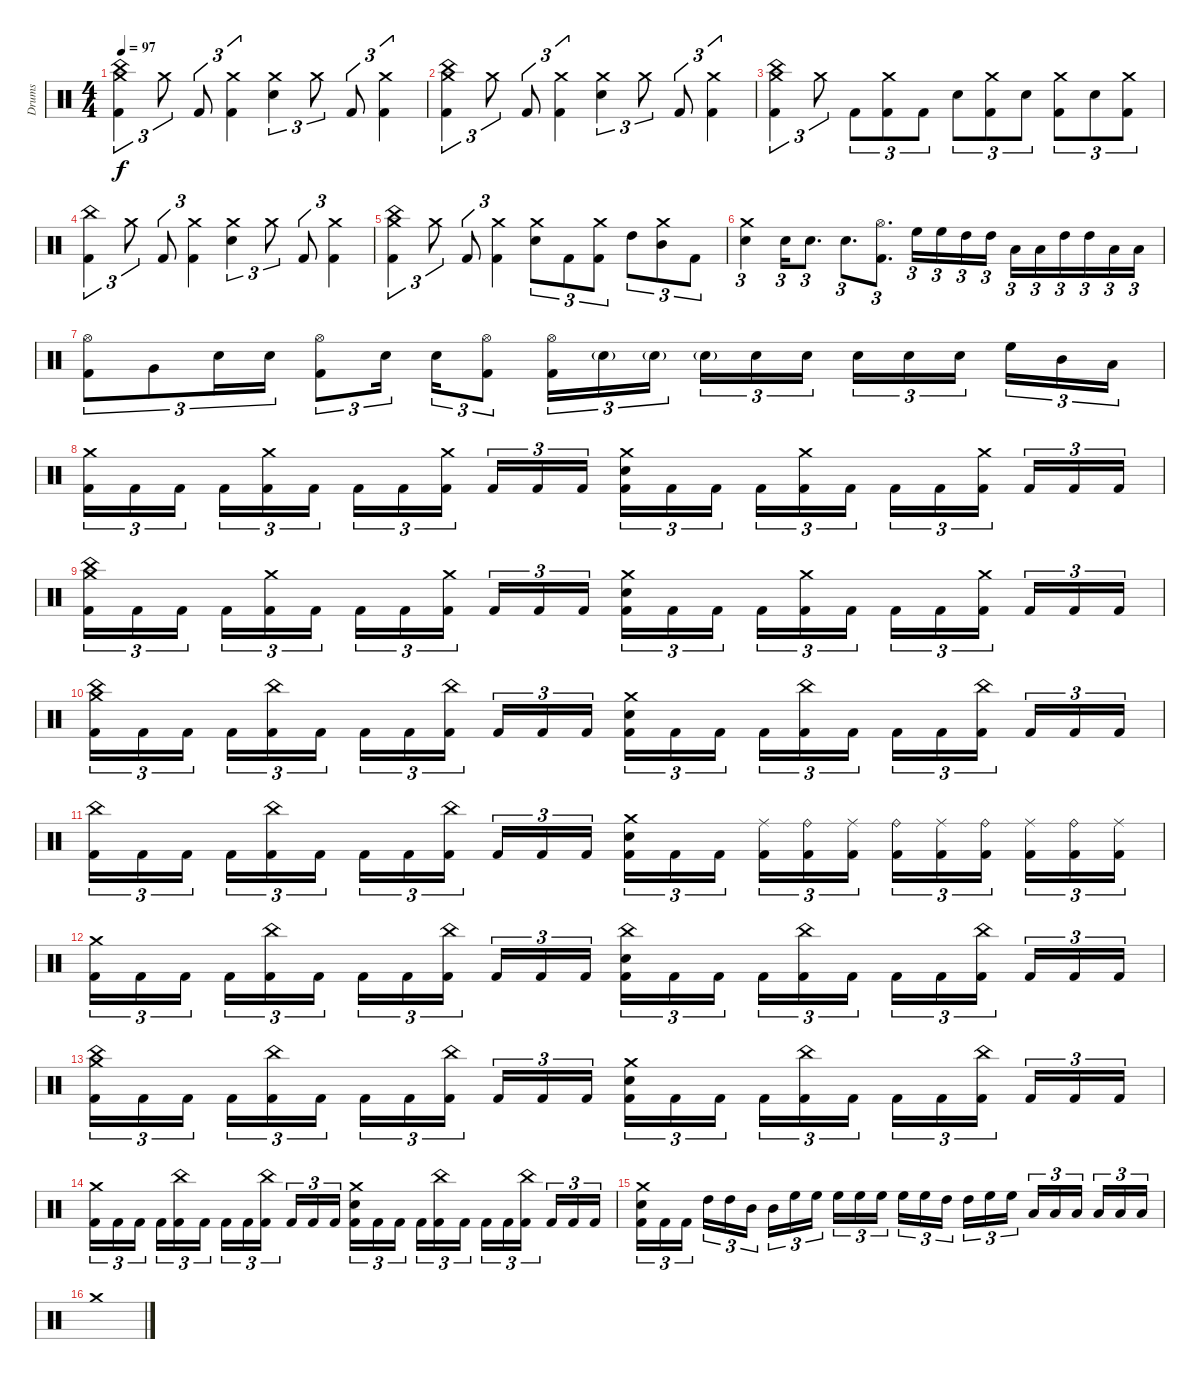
\track ("Drums" "Drums") {instrument percussion}
\staff {score}
\articulation defaults
\ts (4 4)
\tempo 97
\clef neutral
\ks c
("Crash medium (hit)" "China (hit)" "Kick (hit) 2").4{tu (3 2) dy f} "Crash medium (hit)".8{tu (3 2)} "Kick (hit) 2".8{tu (3 2)} ("Crash medium (hit)" "Kick (hit) 2").4{tu (3 2)} ("Crash medium (hit)" "Snare (hit) 2").4{tu (3 2)} "Crash medium (hit)".8{tu (3 2)} "Kick (hit) 2".8{tu (3 2)} ("Crash medium (hit)" "Kick (hit) 2").4{tu (3 2)} |
("Crash medium (hit)" "China (hit)" "Kick (hit) 2").4{tu (3 2)} "Crash medium (hit)".8{tu (3 2)} "Kick (hit) 2".8{tu (3 2)} ("Crash medium (hit)" "Kick (hit) 2").4{tu (3 2)} ("Crash medium (hit)" "Snare (hit) 2").4{tu (3 2)} "Crash medium (hit)".8{tu (3 2)} "Kick (hit) 2".8{tu (3 2)} ("Crash medium (hit)" "Kick (hit) 2").4{tu (3 2)} |
("Crash medium (hit)" "China (hit)" "Kick (hit) 2").4{tu (3 2)} "Crash medium (hit)".8{tu (3 2)} "Kick (hit) 2".8{tu (3 2)} ("Crash medium (hit)" "Kick (hit) 2").8{tu (3 2)} "Kick (hit) 2".8{tu (3 2)} "Snare (hit) 2".8{tu (3 2)} ("Crash medium (hit)" "Kick (hit) 2").8{tu (3 2)} "Snare (hit) 2".8{tu (3 2)} ("Crash medium (hit)" "Kick (hit) 2").8{tu (3 2)} "Snare (hit) 2".8{tu (3 2)} ("Crash medium (hit)" "Kick (hit) 2").8{tu (3 2)} |
("China (hit)" "Kick (hit) 2").4{tu (3 2)} "Crash medium (hit)".8{tu (3 2)} "Kick (hit) 2".8{tu (3 2)} ("Crash medium (hit)" "Kick (hit) 2").4{tu (3 2)} ("Crash medium (hit)" "Snare (hit) 2").4{tu (3 2)} "Crash medium (hit)".8{tu (3 2)} "Kick (hit) 2".8{tu (3 2)} ("Crash medium (hit)" "Kick (hit) 2").4{tu (3 2)} |
("Crash medium (hit)" "China (hit)" "Kick (hit) 2").4{tu (3 2)} "Crash medium (hit)".8{tu (3 2)} "Kick (hit) 2".8{tu (3 2)} ("Crash medium (hit)" "Kick (hit) 2").4{tu (3 2)} ("Crash medium (hit)" "Snare (hit) 2").8{tu (3 2)} "Kick (hit) 2".8{tu (3 2)} ("Crash medium (hit)" "Kick (hit) 2").8{tu (3 2)} "High Tom (hit)".8{tu (3 2)} ("Crash medium (hit)" "Mid Tom (hit)").8{tu (3 2)} "Kick (hit) 2".8{tu (3 2)} |
("Crash medium (hit)" "Snare (hit) 2").4{tu (3 2)} "Snare (hit) 2".16{tu (3 2)} "Snare (hit) 2".8{d tu (3 2)} "Snare (hit) 2".8{d tu (3 2)} ("Hi-Hat (open)" "Kick (hit) 2").8{d tu (3 2)} "High Floor Tom (hit)".16{tu (3 2)} "High Floor Tom (hit)".16{tu (3 2)} "High Tom (hit)".16{tu (3 2)} "High Tom (hit)".16{tu (3 2)} "Low Tom (hit)".16{tu (3 2)} "Low Tom (hit)".16{tu (3 2)} "High Tom (hit)".16{tu (3 2)} "High Tom (hit)".16{tu (3 2)} "Low Tom (hit)".16{tu (3 2)} "Low Tom (hit)".16{tu (3 2)} |
("Hi-Hat (open)" "Kick (hit) 2").8{tu (3 2)} "Very Low Tom (hit)".8{tu (3 2)} "Snare (hit) 2".16{tu (3 2)} "Snare (hit) 2".16{tu (3 2)} ("Hi-Hat (open)" "Kick (hit) 2").8{tu (3 2)} "Snare (hit) 2".16{tu (3 2)} "Snare (hit) 2".16{tu (3 2)} ("Hi-Hat (open)" "Kick (hit) 2").8{tu (3 2)} ("Hi-Hat (open)" "Kick (hit) 2").16{tu (3 2)} "Snare (hit) 2"{g}.16{tu (3 2)} "Snare (hit) 2"{g}.16{tu (3 2)} "Snare (hit) 2"{g}.16{tu (3 2)} "Snare (hit) 2".16{tu (3 2)} "Snare (hit) 2".16{tu (3 2)} "Snare (hit) 2".16{tu (3 2)} "Snare (hit) 2".16{tu (3 2)} "Snare (hit) 2".16{tu (3 2)} "High Floor Tom (hit)".16{tu (3 2)} "Mid Tom (hit)".16{tu (3 2)} "Low Tom (hit)".16{tu (3 2)} |
("Crash medium (hit)" "Kick (hit) 2").16{tu (3 2)} "Kick (hit) 2".16{tu (3 2)} "Kick (hit) 2".16{tu (3 2)} "Kick (hit) 2".16{tu (3 2)} ("Crash medium (hit)" "Kick (hit) 2").16{tu (3 2)} "Kick (hit) 2".16{tu (3 2)} "Kick (hit) 2".16{tu (3 2)} "Kick (hit) 2".16{tu (3 2)} ("Crash medium (hit)" "Kick (hit) 2").16{tu (3 2)} "Kick (hit) 2".16{tu (3 2)} "Kick (hit) 2".16{tu (3 2)} "Kick (hit) 2".16{tu (3 2)} ("Crash medium (hit)" "Snare (hit) 2" "Kick (hit) 2").16{tu (3 2)} "Kick (hit) 2".16{tu (3 2)} "Kick (hit) 2".16{tu (3 2)} "Kick (hit) 2".16{tu (3 2)} ("Crash medium (hit)" "Kick (hit) 2").16{tu (3 2)} "Kick (hit) 2".16{tu (3 2)} "Kick (hit) 2".16{tu (3 2)} "Kick (hit) 2".16{tu (3 2)} ("Crash medium (hit)" "Kick (hit) 2").16{tu (3 2)} "Kick (hit) 2".16{tu (3 2)} "Kick (hit) 2".16{tu (3 2)} "Kick (hit) 2".16{tu (3 2)} |
("Crash medium (hit)" "China (hit)" "Kick (hit) 2").16{tu (3 2)} "Kick (hit) 2".16{tu (3 2)} "Kick (hit) 2".16{tu (3 2)} "Kick (hit) 2".16{tu (3 2)} ("Crash medium (hit)" "Kick (hit) 2").16{tu (3 2)} "Kick (hit) 2".16{tu (3 2)} "Kick (hit) 2".16{tu (3 2)} "Kick (hit) 2".16{tu (3 2)} ("Crash medium (hit)" "Kick (hit) 2").16{tu (3 2)} "Kick (hit) 2".16{tu (3 2)} "Kick (hit) 2".16{tu (3 2)} "Kick (hit) 2".16{tu (3 2)} ("Crash medium (hit)" "Snare (hit) 2" "Kick (hit) 2").16{tu (3 2)} "Kick (hit) 2".16{tu (3 2)} "Kick (hit) 2".16{tu (3 2)} "Kick (hit) 2".16{tu (3 2)} ("Crash medium (hit)" "Kick (hit) 2").16{tu (3 2)} "Kick (hit) 2".16{tu (3 2)} "Kick (hit) 2".16{tu (3 2)} "Kick (hit) 2".16{tu (3 2)} ("Crash medium (hit)" "Kick (hit) 2").16{tu (3 2)} "Kick (hit) 2".16{tu (3 2)} "Kick (hit) 2".16{tu (3 2)} "Kick (hit) 2".16{tu (3 2)} |
("Crash medium (hit)" "China (hit)" "Kick (hit) 2").16{tu (3 2)} "Kick (hit) 2".16{tu (3 2)} "Kick (hit) 2".16{tu (3 2)} "Kick (hit) 2".16{tu (3 2)} ("China (hit)" "Kick (hit) 2").16{tu (3 2)} "Kick (hit) 2".16{tu (3 2)} "Kick (hit) 2".16{tu (3 2)} "Kick (hit) 2".16{tu (3 2)} ("China (hit)" "Kick (hit) 2").16{tu (3 2)} "Kick (hit) 2".16{tu (3 2)} "Kick (hit) 2".16{tu (3 2)} "Kick (hit) 2".16{tu (3 2)} ("Crash medium (hit)" "Snare (hit) 2" "Kick (hit) 2").16{tu (3 2)} "Kick (hit) 2".16{tu (3 2)} "Kick (hit) 2".16{tu (3 2)} "Kick (hit) 2".16{tu (3 2)} ("China (hit)" "Kick (hit) 2").16{tu (3 2)} "Kick (hit) 2".16{tu (3 2)} "Kick (hit) 2".16{tu (3 2)} "Kick (hit) 2".16{tu (3 2)} ("China (hit)" "Kick (hit) 2").16{tu (3 2)} "Kick (hit) 2".16{tu (3 2)} "Kick (hit) 2".16{tu (3 2)} "Kick (hit) 2".16{tu (3 2)} |
("China (hit)" "Kick (hit) 2").16{tu (3 2)} "Kick (hit) 2".16{tu (3 2)} "Kick (hit) 2".16{tu (3 2)} "Kick (hit) 2".16{tu (3 2)} ("China (hit)" "Kick (hit) 2").16{tu (3 2)} "Kick (hit) 2".16{tu (3 2)} "Kick (hit) 2".16{tu (3 2)} "Kick (hit) 2".16{tu (3 2)} ("China (hit)" "Kick (hit) 2").16{tu (3 2)} "Kick (hit) 2".16{tu (3 2)} "Kick (hit) 2".16{tu (3 2)} "Kick (hit) 2".16{tu (3 2)} ("Crash medium (hit)" "Snare (hit) 2" "Kick (hit) 2").16{tu (3 2)} "Kick (hit) 2".16{tu (3 2)} "Kick (hit) 2".16{tu (3 2)} ("Ride (middle)" "Kick (hit) 2").16{tu (3 2)} ("Ride (bell)" "Kick (hit) 2").16{tu (3 2)} ("Ride (middle)" "Kick (hit) 2").16{tu (3 2)} ("Ride (bell)" "Kick (hit) 2").16{tu (3 2)} ("Ride (middle)" "Kick (hit) 2").16{tu (3 2)} ("Ride (bell)" "Kick (hit) 2").16{tu (3 2)} ("Ride (middle)" "Kick (hit) 2").16{tu (3 2)} ("Ride (bell)" "Kick (hit) 2").16{tu (3 2)} ("Ride (middle)" "Kick (hit) 2").16{tu (3 2)} |
("Crash medium (hit)" "Kick (hit) 2").16{tu (3 2)} "Kick (hit) 2".16{tu (3 2)} "Kick (hit) 2".16{tu (3 2)} "Kick (hit) 2".16{tu (3 2)} ("China (hit)" "Kick (hit) 2").16{tu (3 2)} "Kick (hit) 2".16{tu (3 2)} "Kick (hit) 2".16{tu (3 2)} "Kick (hit) 2".16{tu (3 2)} ("China (hit)" "Kick (hit) 2").16{tu (3 2)} "Kick (hit) 2".16{tu (3 2)} "Kick (hit) 2".16{tu (3 2)} "Kick (hit) 2".16{tu (3 2)} ("China (hit)" "Snare (hit) 2" "Kick (hit) 2").16{tu (3 2)} "Kick (hit) 2".16{tu (3 2)} "Kick (hit) 2".16{tu (3 2)} "Kick (hit) 2".16{tu (3 2)} ("China (hit)" "Kick (hit) 2").16{tu (3 2)} "Kick (hit) 2".16{tu (3 2)} "Kick (hit) 2".16{tu (3 2)} "Kick (hit) 2".16{tu (3 2)} ("China (hit)" "Kick (hit) 2").16{tu (3 2)} "Kick (hit) 2".16{tu (3 2)} "Kick (hit) 2".16{tu (3 2)} "Kick (hit) 2".16{tu (3 2)} |
("Crash medium (hit)" "China (hit)" "Kick (hit) 2").16{tu (3 2)} "Kick (hit) 2".16{tu (3 2)} "Kick (hit) 2".16{tu (3 2)} "Kick (hit) 2".16{tu (3 2)} ("China (hit)" "Kick (hit) 2").16{tu (3 2)} "Kick (hit) 2".16{tu (3 2)} "Kick (hit) 2".16{tu (3 2)} "Kick (hit) 2".16{tu (3 2)} ("China (hit)" "Kick (hit) 2").16{tu (3 2)} "Kick (hit) 2".16{tu (3 2)} "Kick (hit) 2".16{tu (3 2)} "Kick (hit) 2".16{tu (3 2)} ("Crash medium (hit)" "Snare (hit) 2" "Kick (hit) 2").16{tu (3 2)} "Kick (hit) 2".16{tu (3 2)} "Kick (hit) 2".16{tu (3 2)} "Kick (hit) 2".16{tu (3 2)} ("China (hit)" "Kick (hit) 2").16{tu (3 2)} "Kick (hit) 2".16{tu (3 2)} "Kick (hit) 2".16{tu (3 2)} "Kick (hit) 2".16{tu (3 2)} ("China (hit)" "Kick (hit) 2").16{tu (3 2)} "Kick (hit) 2".16{tu (3 2)} "Kick (hit) 2".16{tu (3 2)} "Kick (hit) 2".16{tu (3 2)} |
("Crash medium (hit)" "Kick (hit) 2").16{tu (3 2)} "Kick (hit) 2".16{tu (3 2)} "Kick (hit) 2".16{tu (3 2)} "Kick (hit) 2".16{tu (3 2)} ("China (hit)" "Kick (hit) 2").16{tu (3 2)} "Kick (hit) 2".16{tu (3 2)} "Kick (hit) 2".16{tu (3 2)} "Kick (hit) 2".16{tu (3 2)} ("China (hit)" "Kick (hit) 2").16{tu (3 2)} "Kick (hit) 2".16{tu (3 2)} "Kick (hit) 2".16{tu (3 2)} "Kick (hit) 2".16{tu (3 2)} ("Crash medium (hit)" "Snare (hit) 2" "Kick (hit) 2").16{tu (3 2)} "Kick (hit) 2".16{tu (3 2)} "Kick (hit) 2".16{tu (3 2)} "Kick (hit) 2".16{tu (3 2)} ("China (hit)" "Kick (hit) 2").16{tu (3 2)} "Kick (hit) 2".16{tu (3 2)} "Kick (hit) 2".16{tu (3 2)} "Kick (hit) 2".16{tu (3 2)} ("China (hit)" "Kick (hit) 2").16{tu (3 2)} "Kick (hit) 2".16{tu (3 2)} "Kick (hit) 2".16{tu (3 2)} "Kick (hit) 2".16{tu (3 2)} |
("Crash medium (hit)" "Snare (hit) 2" "Kick (hit) 2").16{tu (3 2)} "Kick (hit) 2".16{tu (3 2)} "Kick (hit) 2".16{tu (3 2)} "High Tom (hit)".16{tu (3 2)} "High Tom (hit)".16{tu (3 2)} "Mid Tom (hit)".16{tu (3 2)} "Mid Tom (hit)".16{tu (3 2)} "High Floor Tom (hit)".16{tu (3 2)} "High Floor Tom (hit)".16{tu (3 2)} "High Floor Tom (hit)".16{tu (3 2)} "High Floor Tom (hit)".16{tu (3 2)} "High Floor Tom (hit)".16{tu (3 2)} "High Floor Tom (hit)".16{tu (3 2)} "High Floor Tom (hit)".16{tu (3 2)} "High Tom (hit)".16{tu (3 2)} "High Tom (hit)".16{tu (3 2)} "High Floor Tom (hit)".16{tu (3 2)} "High Floor Tom (hit)".16{tu (3 2)} "Low Tom (hit)".16{tu (3 2)} "Low Tom (hit)".16{tu (3 2)} "Low Tom (hit)".16{tu (3 2)} "Low Tom (hit)".16{tu (3 2)} "Low Tom (hit)".16{tu (3 2)} "Low Tom (hit)".16{tu (3 2)} |
"Crash medium (hit)".1
